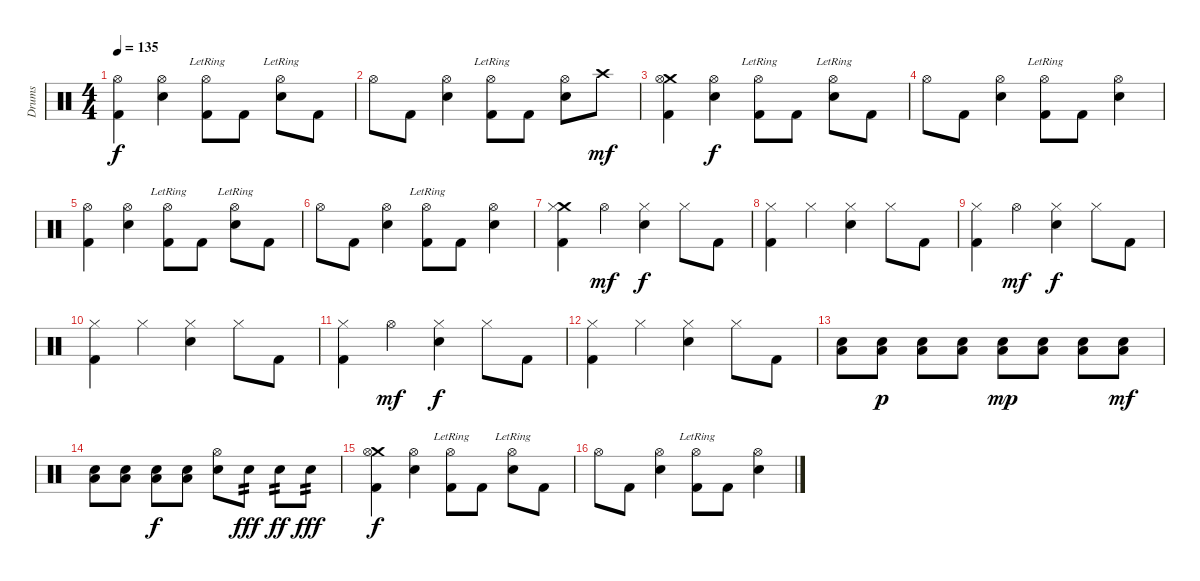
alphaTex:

\track ("Drums" "Drums") {instrument percussion}
\staff {score}
\articulation defaults
\ts (4 4)
\tempo 135
\clef neutral
\ks c
("Hi-Hat (open)" "Kick (hit) 2").4{dy f} ("Hi-Hat (open)" "Electric Snare (hit)").4 ("Hi-Hat (open)"{lr} "Kick (hit) 2").8 "Kick (hit) 2".8 ("Hi-Hat (open)"{lr} "Electric Snare (hit)").8 "Kick (hit) 2".8 |
"Hi-Hat (open)".8 "Kick (hit) 2".8 ("Hi-Hat (open)" "Electric Snare (hit)").4 ("Hi-Hat (open)"{lr} "Kick (hit) 2").8 "Kick (hit) 2".8 ("Hi-Hat (open)" "Electric Snare (hit)").8 "Crash high (hit)".8{dy mf} |
("Crash medium (hit)" "Hi-Hat (open)" "Kick (hit) 2").4 ("Hi-Hat (open)" "Electric Snare (hit)").4{dy f} ("Hi-Hat (open)"{lr} "Kick (hit) 2").8 "Kick (hit) 2".8 ("Hi-Hat (open)"{lr} "Electric Snare (hit)").8 "Kick (hit) 2".8 |
"Hi-Hat (open)".8 "Kick (hit) 2".8 ("Hi-Hat (open)" "Electric Snare (hit)").4 ("Hi-Hat (open)"{lr} "Kick (hit) 2").8 "Kick (hit) 2".8 ("Hi-Hat (open)" "Electric Snare (hit)").4 |
("Hi-Hat (open)" "Kick (hit) 2").4 ("Hi-Hat (open)" "Electric Snare (hit)").4 ("Hi-Hat (open)"{lr} "Kick (hit) 2").8 "Kick (hit) 2".8 ("Hi-Hat (open)"{lr} "Electric Snare (hit)").8 "Kick (hit) 2".8 |
"Hi-Hat (open)".8 "Kick (hit) 2".8 ("Hi-Hat (open)" "Electric Snare (hit)").4 ("Hi-Hat (open)"{lr} "Kick (hit) 2").8 "Kick (hit) 2".8 ("Hi-Hat (open)" "Electric Snare (hit)").4 |
("Crash medium (hit)" "Hi-Hat (closed)" "Kick (hit) 2").4 "Hi-Hat (open)".4{dy mf} ("Hi-Hat (closed)" "Electric Snare (hit)").4{dy f} "Hi-Hat (closed)".8 "Kick (hit) 2".8 |
("Hi-Hat (closed)" "Kick (hit) 2").4 "Hi-Hat (closed)".4 ("Hi-Hat (closed)" "Electric Snare (hit)").4 "Hi-Hat (closed)".8 "Kick (hit) 2".8 |
("Hi-Hat (closed)" "Kick (hit) 2").4 "Hi-Hat (open)".4{dy mf} ("Hi-Hat (closed)" "Electric Snare (hit)").4{dy f} "Hi-Hat (closed)".8 "Kick (hit) 2".8 |
("Hi-Hat (closed)" "Kick (hit) 2").4 "Hi-Hat (closed)".4 ("Hi-Hat (closed)" "Electric Snare (hit)").4 "Hi-Hat (closed)".8 "Kick (hit) 2".8 |
("Hi-Hat (closed)" "Kick (hit) 2").4 "Hi-Hat (open)".4{dy mf} ("Hi-Hat (closed)" "Electric Snare (hit)").4{dy f} "Hi-Hat (closed)".8 "Kick (hit) 2".8 |
("Hi-Hat (closed)" "Kick (hit) 2").4 "Hi-Hat (closed)".4 ("Hi-Hat (closed)" "Electric Snare (hit)").4 "Hi-Hat (closed)".8 "Kick (hit) 2".8 |
("Low Floor Tom (hit)" "Electric Snare (hit)").8 ("Low Floor Tom (hit)" "Electric Snare (hit)").8{dy p} ("Low Floor Tom (hit)" "Electric Snare (hit)").8 ("Low Floor Tom (hit)" "Electric Snare (hit)").8 ("Low Floor Tom (hit)" "Electric Snare (hit)").8{dy mp} ("Low Floor Tom (hit)" "Electric Snare (hit)").8 ("Low Floor Tom (hit)" "Electric Snare (hit)").8 ("Low Floor Tom (hit)" "Electric Snare (hit)").8{dy mf} |
("Low Floor Tom (hit)" "Electric Snare (hit)").8 ("Low Floor Tom (hit)" "Electric Snare (hit)").8 ("Low Floor Tom (hit)" "Electric Snare (hit)").8{dy f} ("Low Floor Tom (hit)" "Electric Snare (hit)").8 ("Hi-Hat (open)" "Electric Snare (hit)").8 "Electric Snare (hit)".8{tp 2 dy fff} "Electric Snare (hit)".8{tp 2 dy ff} "Electric Snare (hit)".8{tp 2 dy fff} |
("Crash medium (hit)" "Hi-Hat (open)" "Kick (hit) 2").4{dy f} ("Hi-Hat (open)" "Electric Snare (hit)").4 ("Hi-Hat (open)"{lr} "Kick (hit) 2").8 "Kick (hit) 2".8 ("Hi-Hat (open)"{lr} "Electric Snare (hit)").8 "Kick (hit) 2".8 |
"Hi-Hat (open)".8 "Kick (hit) 2".8 ("Hi-Hat (open)" "Electric Snare (hit)").4 ("Hi-Hat (open)"{lr} "Kick (hit) 2").8 "Kick (hit) 2".8 ("Hi-Hat (open)" "Electric Snare (hit)").4
